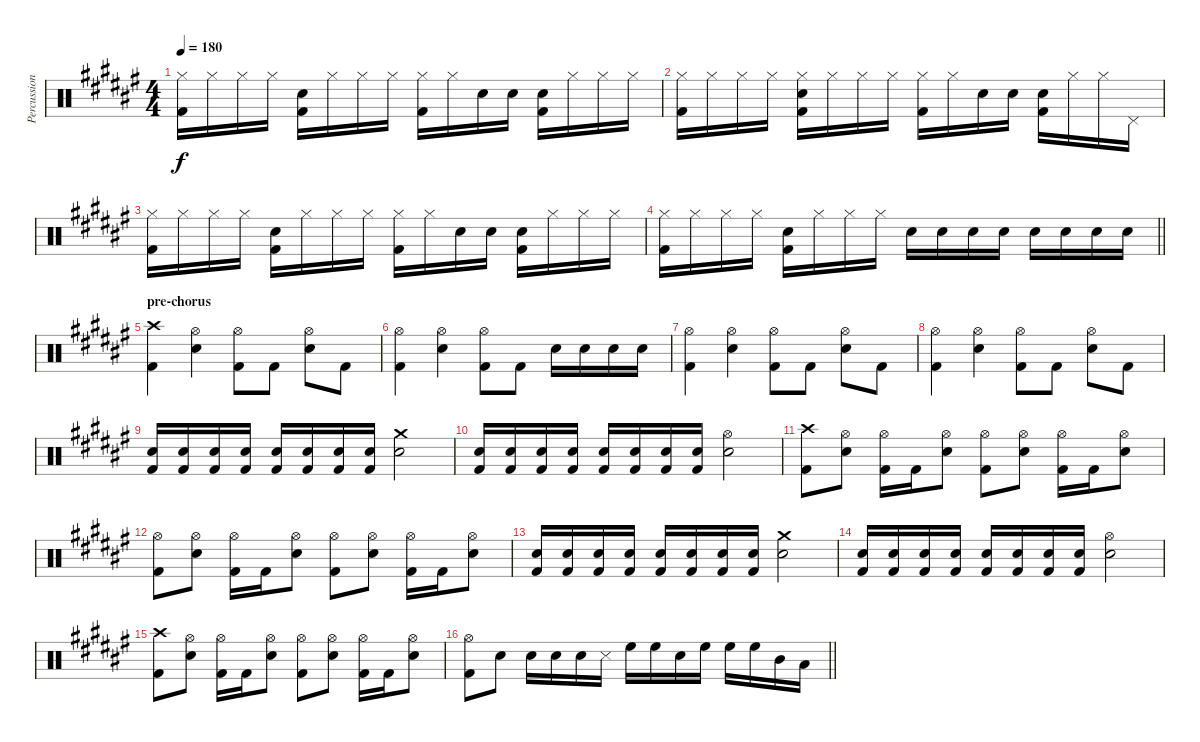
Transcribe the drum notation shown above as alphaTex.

\track ("Percussion" "Percussion") {instrument percussion}
\staff {score}
\articulation defaults
\ts (4 4)
\tempo 180
\clef neutral
\ks f#
("Hi-Hat (closed)" "Kick (hit) 2").16{dy f} "Hi-Hat (closed)".16 "Hi-Hat (closed)".16 "Hi-Hat (closed)".16 ("Snare (hit) 2" "Kick (hit) 2").16 "Hi-Hat (closed)".16 "Hi-Hat (closed)".16 "Hi-Hat (closed)".16 ("Hi-Hat (closed)" "Kick (hit) 2").16 "Hi-Hat (closed)".16 "Snare (hit) 2".16 "Snare (hit) 2".16 ("Snare (hit) 2" "Kick (hit) 2").16 "Hi-Hat (closed)".16 "Hi-Hat (closed)".16 "Hi-Hat (closed)".16 |
("Hi-Hat (closed)" "Kick (hit) 2").16 "Hi-Hat (closed)".16 "Hi-Hat (closed)".16 "Hi-Hat (closed)".16 ("Hi-Hat (closed)" "Snare (hit) 2" "Kick (hit) 2").16 "Hi-Hat (closed)".16 "Hi-Hat (closed)".16 "Hi-Hat (closed)".16 ("Hi-Hat (closed)" "Kick (hit) 2").16 "Hi-Hat (closed)".16 "Snare (hit) 2".16 "Snare (hit) 2".16 ("Snare (hit) 2" "Kick (hit) 2").16 "Hi-Hat (closed)".16 "Hi-Hat (closed)".16 "Pedal Hi-Hat (hit)".16 |
("Hi-Hat (closed)" "Kick (hit) 2").16 "Hi-Hat (closed)".16 "Hi-Hat (closed)".16 "Hi-Hat (closed)".16 ("Snare (hit) 2" "Kick (hit) 2").16 "Hi-Hat (closed)".16 "Hi-Hat (closed)".16 "Hi-Hat (closed)".16 ("Hi-Hat (closed)" "Kick (hit) 2").16 "Hi-Hat (closed)".16 "Snare (hit) 2".16 "Snare (hit) 2".16 ("Snare (hit) 2" "Kick (hit) 2").16 "Hi-Hat (closed)".16 "Hi-Hat (closed)".16 "Hi-Hat (closed)".16 |
\barLineRight lightlight
("Hi-Hat (closed)" "Kick (hit) 2").16 "Hi-Hat (closed)".16 "Hi-Hat (closed)".16 "Hi-Hat (closed)".16 ("Snare (hit) 2" "Kick (hit) 2").16 "Hi-Hat (closed)".16 "Hi-Hat (closed)".16 "Hi-Hat (closed)".16 "Snare (hit) 2".16 "Snare (hit) 2".16 "Snare (hit) 2".16 "Snare (hit) 2".16 "Snare (hit) 2".16 "Snare (hit) 2".16 "Snare (hit) 2".16 "Snare (hit) 2".16 |
\section ("" "pre-chorus")
("Crash high (hit)" "Kick (hit) 2").4 ("Hi-Hat (open)" "Snare (hit) 2").4 ("Hi-Hat (open)" "Kick (hit) 2").8 "Kick (hit) 2".8 ("Hi-Hat (open)" "Snare (hit) 2").8 "Kick (hit) 2".8 |
("Hi-Hat (open)" "Kick (hit) 2").4 ("Hi-Hat (open)" "Snare (hit) 2").4 ("Hi-Hat (open)" "Kick (hit) 2").8 "Kick (hit) 2".8 "Snare (hit) 2".16 "Snare (hit) 2".16 "Snare (hit) 2".16 "Snare (hit) 2".16 |
("Hi-Hat (open)" "Kick (hit) 2").4 ("Hi-Hat (open)" "Snare (hit) 2").4 ("Hi-Hat (open)" "Kick (hit) 2").8 "Kick (hit) 2".8 ("Hi-Hat (open)" "Snare (hit) 2").8 "Kick (hit) 2".8 |
("Hi-Hat (open)" "Kick (hit) 2").4 ("Hi-Hat (open)" "Snare (hit) 2").4 ("Hi-Hat (open)" "Kick (hit) 2").8 "Kick (hit) 2".8 ("Hi-Hat (open)" "Snare (hit) 2").8 "Kick (hit) 2".8 |
("Snare (hit) 2" "Kick (hit) 2").16 ("Snare (hit) 2" "Kick (hit) 2").16 ("Snare (hit) 2" "Kick (hit) 2").16 ("Snare (hit) 2" "Kick (hit) 2").16 ("Snare (hit) 2" "Kick (hit) 2").16 ("Snare (hit) 2" "Kick (hit) 2").16 ("Snare (hit) 2" "Kick (hit) 2").16 ("Snare (hit) 2" "Kick (hit) 2").16 ("Crash medium (hit)" "Snare (hit) 2").2 |
("Snare (hit) 2" "Kick (hit) 2").16 ("Snare (hit) 2" "Kick (hit) 2").16 ("Snare (hit) 2" "Kick (hit) 2").16 ("Snare (hit) 2" "Kick (hit) 2").16 ("Snare (hit) 2" "Kick (hit) 2").16 ("Snare (hit) 2" "Kick (hit) 2").16 ("Snare (hit) 2" "Kick (hit) 2").16 ("Snare (hit) 2" "Kick (hit) 2").16 ("Hi-Hat (open)" "Snare (hit) 2").2 |
("Crash high (hit)" "Kick (hit) 2").8 ("Hi-Hat (open)" "Snare (hit) 2").8 ("Hi-Hat (open)" "Kick (hit) 2").16 "Kick (hit) 2".16 ("Hi-Hat (open)" "Snare (hit) 2").8 ("Hi-Hat (open)" "Kick (hit) 2").8 ("Hi-Hat (open)" "Snare (hit) 2").8 ("Hi-Hat (open)" "Kick (hit) 2").16 "Kick (hit) 2".16 ("Hi-Hat (open)" "Snare (hit) 2").8 |
("Hi-Hat (open)" "Kick (hit) 2").8 ("Hi-Hat (open)" "Snare (hit) 2").8 ("Hi-Hat (open)" "Kick (hit) 2").16 "Kick (hit) 2".16 ("Hi-Hat (open)" "Snare (hit) 2").8 ("Hi-Hat (open)" "Kick (hit) 2").8 ("Hi-Hat (open)" "Snare (hit) 2").8 ("Hi-Hat (open)" "Kick (hit) 2").16 "Kick (hit) 2".16 ("Hi-Hat (open)" "Snare (hit) 2").8 |
("Snare (hit) 2" "Kick (hit) 2").16 ("Snare (hit) 2" "Kick (hit) 2").16 ("Snare (hit) 2" "Kick (hit) 2").16 ("Snare (hit) 2" "Kick (hit) 2").16 ("Snare (hit) 2" "Kick (hit) 2").16 ("Snare (hit) 2" "Kick (hit) 2").16 ("Snare (hit) 2" "Kick (hit) 2").16 ("Snare (hit) 2" "Kick (hit) 2").16 ("Crash medium (hit)" "Snare (hit) 2").2 |
("Snare (hit) 2" "Kick (hit) 2").16 ("Snare (hit) 2" "Kick (hit) 2").16 ("Snare (hit) 2" "Kick (hit) 2").16 ("Snare (hit) 2" "Kick (hit) 2").16 ("Snare (hit) 2" "Kick (hit) 2").16 ("Snare (hit) 2" "Kick (hit) 2").16 ("Snare (hit) 2" "Kick (hit) 2").16 ("Snare (hit) 2" "Kick (hit) 2").16 ("Hi-Hat (open)" "Snare (hit) 2").2 |
("Crash high (hit)" "Kick (hit) 2").8 ("Hi-Hat (open)" "Snare (hit) 2").8 ("Hi-Hat (open)" "Kick (hit) 2").16 "Kick (hit) 2".16 ("Hi-Hat (open)" "Snare (hit) 2").8 ("Hi-Hat (open)" "Kick (hit) 2").8 ("Hi-Hat (open)" "Snare (hit) 2").8 ("Hi-Hat (open)" "Kick (hit) 2").16 "Kick (hit) 2".16 ("Hi-Hat (open)" "Snare (hit) 2").8 |
\barLineRight lightlight
("Hi-Hat (open)" "Kick (hit) 2").8 "Snare (hit) 2".8 "Snare (hit) 2".16 "Snare (hit) 2".16 "Snare (hit) 2".16 "Snare (side stick) 3".16 "High Floor Tom (hit)".16 "High Floor Tom (hit)".16 "Snare (hit) 2".16 "High Floor Tom (hit)".16 "High Floor Tom (hit)".16 "High Floor Tom (hit)".16 "Mid Tom (hit)".16 "Low Floor Tom (hit)".16
